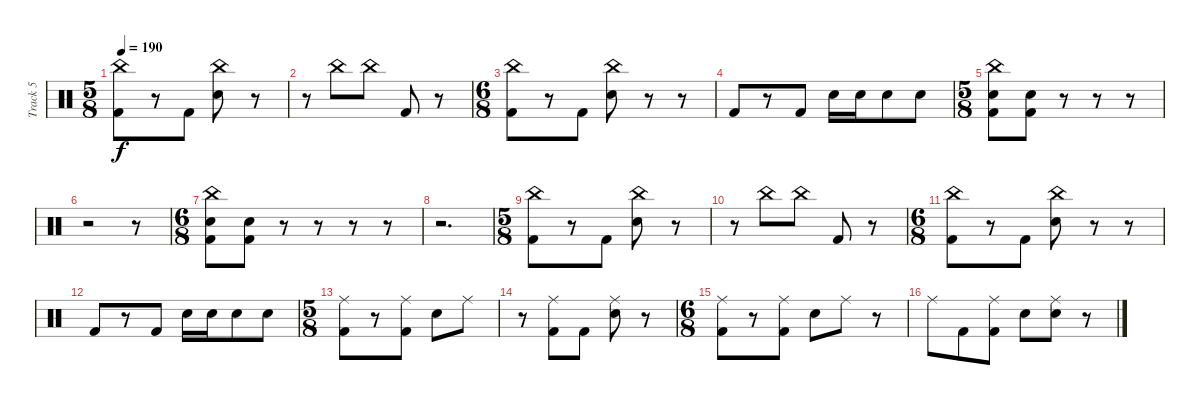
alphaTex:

\track ("Track 5" "Track 5") {instrument percussion}
\staff {score}
\articulation defaults
\ts (5 8)
\tempo 190
\clef neutral
\ks c
("China (hit)" "Kick (hit) 2").8{dy f} r.8 "Kick (hit) 2".8 ("China (hit)" "Electric Snare (hit)").8 r.8 |
r.8 "China (hit)".8 "China (hit)".8 "Kick (hit) 2".8 r.8 |
\ts (6 8)
("China (hit)" "Kick (hit) 2").8 r.8 "Kick (hit) 2".8 ("China (hit)" "Electric Snare (hit)").8 r.8 r.8 |
"Kick (hit) 2".8 r.8 "Kick (hit) 2".8 "Electric Snare (hit)".16 "Electric Snare (hit)".16 "Electric Snare (hit)".8 "Electric Snare (hit)".8 |
\ts (5 8)
("China (hit)" "Electric Snare (hit)" "Kick (hit) 2").8 ("Electric Snare (hit)" "Kick (hit) 2").8 r.8 r.8 r.8 |
r.2 r.8 |
\ts (6 8)
("China (hit)" "Electric Snare (hit)" "Kick (hit) 2").8 ("Electric Snare (hit)" "Kick (hit) 2").8 r.8 r.8 r.8 r.8 |
r.2{d} |
\ts (5 8)
("China (hit)" "Kick (hit) 2").8 r.8 "Kick (hit) 2".8 ("China (hit)" "Electric Snare (hit)").8 r.8 |
r.8 "China (hit)".8 "China (hit)".8 "Kick (hit) 2".8 r.8 |
\ts (6 8)
("China (hit)" "Kick (hit) 2").8 r.8 "Kick (hit) 2".8 ("China (hit)" "Electric Snare (hit)").8 r.8 r.8 |
"Kick (hit) 2".8 r.8 "Kick (hit) 2".8 "Electric Snare (hit)".16 "Electric Snare (hit)".16 "Electric Snare (hit)".8 "Electric Snare (hit)".8 |
\ts (5 8)
("Ride (middle)" "Kick (hit) 2").8 r.8 ("Ride (middle)" "Kick (hit) 2").8 "Electric Snare (hit)".8 "Ride (middle)".8 |
r.8 ("Ride (middle)" "Kick (hit) 2").8 "Kick (hit) 2".8 ("Ride (middle)" "Electric Snare (hit)").8 r.8 |
\ts (6 8)
("Ride (middle)" "Kick (hit) 2").8 r.8 ("Ride (middle)" "Kick (hit) 2").8 "Electric Snare (hit)".8 "Ride (middle)".8 r.8 |
"Ride (middle)".8 "Kick (hit) 2".8 ("Ride (middle)" "Kick (hit) 2").8 "Electric Snare (hit)".8 ("Ride (middle)" "Electric Snare (hit)").8 r.8
